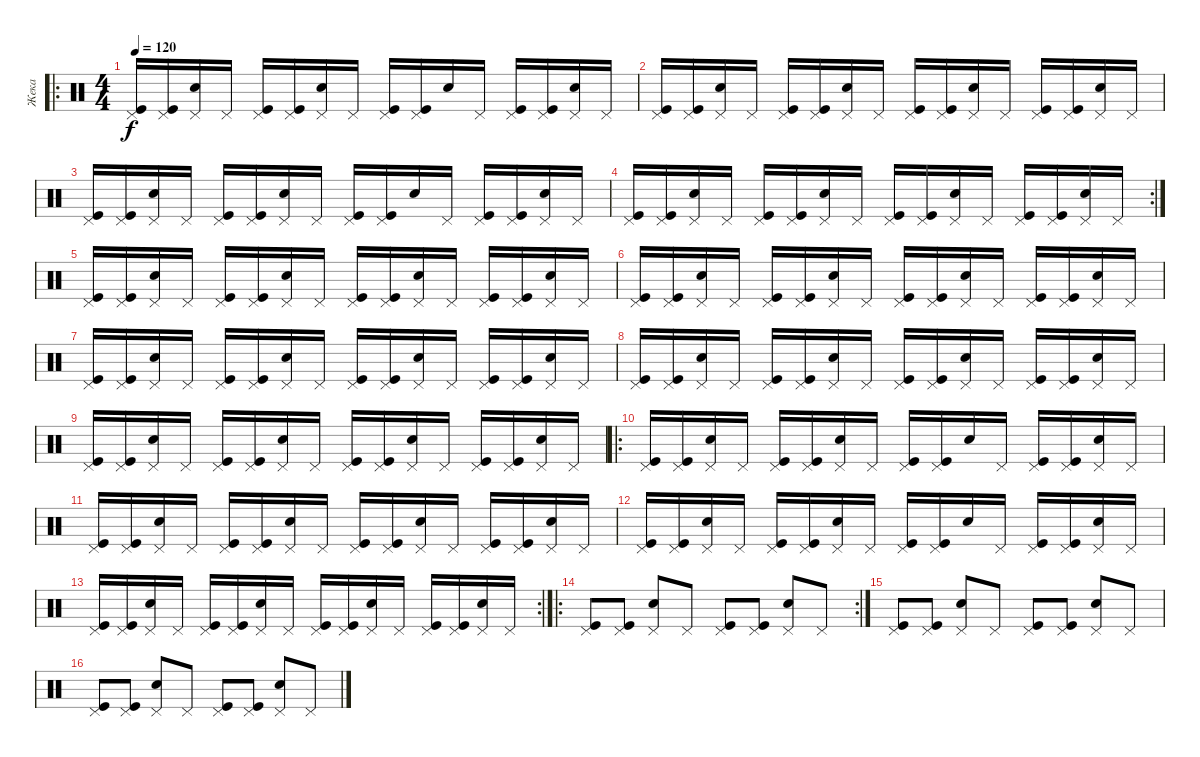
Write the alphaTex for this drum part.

\track ("Жека" "Жека") {solo instrument percussion}
\staff {score}
\articulation defaults
\ro
\ts (4 4)
\tempo 120
\clef neutral
\ks c
("Kick (hit)" "Pedal Hi-Hat (hit)").16{dy f} ("Kick (hit)" "Pedal Hi-Hat (hit)").16 ("Pedal Hi-Hat (hit)" "Snare (hit) 2").16 "Pedal Hi-Hat (hit)".16 ("Kick (hit)" "Pedal Hi-Hat (hit)").16 ("Kick (hit)" "Pedal Hi-Hat (hit)").16 ("Pedal Hi-Hat (hit)" "Snare (hit) 2").16 "Pedal Hi-Hat (hit)".16 ("Kick (hit)" "Pedal Hi-Hat (hit)").16 ("Kick (hit)" "Pedal Hi-Hat (hit)").16 "Snare (hit) 2".16 "Pedal Hi-Hat (hit)".16 ("Kick (hit)" "Pedal Hi-Hat (hit)").16 ("Kick (hit)" "Pedal Hi-Hat (hit)").16 ("Pedal Hi-Hat (hit)" "Snare (hit) 2").16 "Pedal Hi-Hat (hit)".16 |
("Kick (hit)" "Pedal Hi-Hat (hit)").16 ("Kick (hit)" "Pedal Hi-Hat (hit)").16 ("Pedal Hi-Hat (hit)" "Snare (hit) 2").16 "Pedal Hi-Hat (hit)".16 ("Kick (hit)" "Pedal Hi-Hat (hit)").16 ("Kick (hit)" "Pedal Hi-Hat (hit)").16 ("Pedal Hi-Hat (hit)" "Snare (hit) 2").16 "Pedal Hi-Hat (hit)".16 ("Kick (hit)" "Pedal Hi-Hat (hit)").16 ("Kick (hit)" "Pedal Hi-Hat (hit)").16 ("Pedal Hi-Hat (hit)" "Snare (hit) 2").16 "Pedal Hi-Hat (hit)".16 ("Kick (hit)" "Pedal Hi-Hat (hit)").16 ("Kick (hit)" "Pedal Hi-Hat (hit)").16 ("Pedal Hi-Hat (hit)" "Snare (hit) 2").16 "Pedal Hi-Hat (hit)".16 |
("Kick (hit)" "Pedal Hi-Hat (hit)").16 ("Kick (hit)" "Pedal Hi-Hat (hit)").16 ("Pedal Hi-Hat (hit)" "Snare (hit) 2").16 "Pedal Hi-Hat (hit)".16 ("Kick (hit)" "Pedal Hi-Hat (hit)").16 ("Kick (hit)" "Pedal Hi-Hat (hit)").16 ("Pedal Hi-Hat (hit)" "Snare (hit) 2").16 "Pedal Hi-Hat (hit)".16 ("Kick (hit)" "Pedal Hi-Hat (hit)").16 ("Kick (hit)" "Pedal Hi-Hat (hit)").16 "Snare (hit) 2".16 "Pedal Hi-Hat (hit)".16 ("Kick (hit)" "Pedal Hi-Hat (hit)").16 ("Kick (hit)" "Pedal Hi-Hat (hit)").16 ("Pedal Hi-Hat (hit)" "Snare (hit) 2").16 "Pedal Hi-Hat (hit)".16 |
\rc 2
("Kick (hit)" "Pedal Hi-Hat (hit)").16 ("Kick (hit)" "Pedal Hi-Hat (hit)").16 ("Pedal Hi-Hat (hit)" "Snare (hit) 2").16 "Pedal Hi-Hat (hit)".16 ("Kick (hit)" "Pedal Hi-Hat (hit)").16 ("Kick (hit)" "Pedal Hi-Hat (hit)").16 ("Pedal Hi-Hat (hit)" "Snare (hit) 2").16 "Pedal Hi-Hat (hit)".16 ("Kick (hit)" "Pedal Hi-Hat (hit)").16 ("Kick (hit)" "Pedal Hi-Hat (hit)").16 ("Pedal Hi-Hat (hit)" "Snare (hit) 2").16 "Pedal Hi-Hat (hit)".16 ("Kick (hit)" "Pedal Hi-Hat (hit)").16 ("Kick (hit)" "Pedal Hi-Hat (hit)").16 ("Pedal Hi-Hat (hit)" "Snare (hit) 2").16 "Pedal Hi-Hat (hit)".16 |
("Kick (hit)" "Pedal Hi-Hat (hit)").16 ("Kick (hit)" "Pedal Hi-Hat (hit)").16 ("Pedal Hi-Hat (hit)" "Snare (hit) 2").16 "Pedal Hi-Hat (hit)".16 ("Kick (hit)" "Pedal Hi-Hat (hit)").16 ("Kick (hit)" "Pedal Hi-Hat (hit)").16 ("Pedal Hi-Hat (hit)" "Snare (hit) 2").16 "Pedal Hi-Hat (hit)".16 ("Kick (hit)" "Pedal Hi-Hat (hit)").16 ("Kick (hit)" "Pedal Hi-Hat (hit)").16 ("Pedal Hi-Hat (hit)" "Snare (hit) 2").16 "Pedal Hi-Hat (hit)".16 ("Kick (hit)" "Pedal Hi-Hat (hit)").16 ("Kick (hit)" "Pedal Hi-Hat (hit)").16 ("Pedal Hi-Hat (hit)" "Snare (hit) 2").16 "Pedal Hi-Hat (hit)".16 |
("Kick (hit)" "Pedal Hi-Hat (hit)").16 ("Kick (hit)" "Pedal Hi-Hat (hit)").16 ("Pedal Hi-Hat (hit)" "Snare (hit) 2").16 "Pedal Hi-Hat (hit)".16 ("Kick (hit)" "Pedal Hi-Hat (hit)").16 ("Kick (hit)" "Pedal Hi-Hat (hit)").16 ("Pedal Hi-Hat (hit)" "Snare (hit) 2").16 "Pedal Hi-Hat (hit)".16 ("Kick (hit)" "Pedal Hi-Hat (hit)").16 ("Kick (hit)" "Pedal Hi-Hat (hit)").16 ("Pedal Hi-Hat (hit)" "Snare (hit) 2").16 "Pedal Hi-Hat (hit)".16 ("Kick (hit)" "Pedal Hi-Hat (hit)").16 ("Kick (hit)" "Pedal Hi-Hat (hit)").16 ("Pedal Hi-Hat (hit)" "Snare (hit) 2").16 "Pedal Hi-Hat (hit)".16 |
("Kick (hit)" "Pedal Hi-Hat (hit)").16 ("Kick (hit)" "Pedal Hi-Hat (hit)").16 ("Pedal Hi-Hat (hit)" "Snare (hit) 2").16 "Pedal Hi-Hat (hit)".16 ("Kick (hit)" "Pedal Hi-Hat (hit)").16 ("Kick (hit)" "Pedal Hi-Hat (hit)").16 ("Pedal Hi-Hat (hit)" "Snare (hit) 2").16 "Pedal Hi-Hat (hit)".16 ("Kick (hit)" "Pedal Hi-Hat (hit)").16 ("Kick (hit)" "Pedal Hi-Hat (hit)").16 ("Pedal Hi-Hat (hit)" "Snare (hit) 2").16 "Pedal Hi-Hat (hit)".16 ("Kick (hit)" "Pedal Hi-Hat (hit)").16 ("Kick (hit)" "Pedal Hi-Hat (hit)").16 ("Pedal Hi-Hat (hit)" "Snare (hit) 2").16 "Pedal Hi-Hat (hit)".16 |
("Kick (hit)" "Pedal Hi-Hat (hit)").16 ("Kick (hit)" "Pedal Hi-Hat (hit)").16 ("Pedal Hi-Hat (hit)" "Snare (hit) 2").16 "Pedal Hi-Hat (hit)".16 ("Kick (hit)" "Pedal Hi-Hat (hit)").16 ("Kick (hit)" "Pedal Hi-Hat (hit)").16 ("Pedal Hi-Hat (hit)" "Snare (hit) 2").16 "Pedal Hi-Hat (hit)".16 ("Kick (hit)" "Pedal Hi-Hat (hit)").16 ("Kick (hit)" "Pedal Hi-Hat (hit)").16 ("Pedal Hi-Hat (hit)" "Snare (hit) 2").16 "Pedal Hi-Hat (hit)".16 ("Kick (hit)" "Pedal Hi-Hat (hit)").16 ("Kick (hit)" "Pedal Hi-Hat (hit)").16 ("Pedal Hi-Hat (hit)" "Snare (hit) 2").16 "Pedal Hi-Hat (hit)".16 |
("Kick (hit)" "Pedal Hi-Hat (hit)").16 ("Kick (hit)" "Pedal Hi-Hat (hit)").16 ("Pedal Hi-Hat (hit)" "Snare (hit) 2").16 "Pedal Hi-Hat (hit)".16 ("Kick (hit)" "Pedal Hi-Hat (hit)").16 ("Kick (hit)" "Pedal Hi-Hat (hit)").16 ("Pedal Hi-Hat (hit)" "Snare (hit) 2").16 "Pedal Hi-Hat (hit)".16 ("Kick (hit)" "Pedal Hi-Hat (hit)").16 ("Kick (hit)" "Pedal Hi-Hat (hit)").16 ("Pedal Hi-Hat (hit)" "Snare (hit) 2").16 "Pedal Hi-Hat (hit)".16 ("Kick (hit)" "Pedal Hi-Hat (hit)").16 ("Kick (hit)" "Pedal Hi-Hat (hit)").16 ("Pedal Hi-Hat (hit)" "Snare (hit) 2").16 "Pedal Hi-Hat (hit)".16 |
\ro
("Kick (hit)" "Pedal Hi-Hat (hit)").16 ("Kick (hit)" "Pedal Hi-Hat (hit)").16 ("Pedal Hi-Hat (hit)" "Snare (hit) 2").16 "Pedal Hi-Hat (hit)".16 ("Kick (hit)" "Pedal Hi-Hat (hit)").16 ("Kick (hit)" "Pedal Hi-Hat (hit)").16 ("Pedal Hi-Hat (hit)" "Snare (hit) 2").16 "Pedal Hi-Hat (hit)".16 ("Kick (hit)" "Pedal Hi-Hat (hit)").16 ("Kick (hit)" "Pedal Hi-Hat (hit)").16 "Snare (hit) 2".16 "Pedal Hi-Hat (hit)".16 ("Kick (hit)" "Pedal Hi-Hat (hit)").16 ("Kick (hit)" "Pedal Hi-Hat (hit)").16 ("Pedal Hi-Hat (hit)" "Snare (hit) 2").16 "Pedal Hi-Hat (hit)".16 |
("Kick (hit)" "Pedal Hi-Hat (hit)").16 ("Kick (hit)" "Pedal Hi-Hat (hit)").16 ("Pedal Hi-Hat (hit)" "Snare (hit) 2").16 "Pedal Hi-Hat (hit)".16 ("Kick (hit)" "Pedal Hi-Hat (hit)").16 ("Kick (hit)" "Pedal Hi-Hat (hit)").16 ("Pedal Hi-Hat (hit)" "Snare (hit) 2").16 "Pedal Hi-Hat (hit)".16 ("Kick (hit)" "Pedal Hi-Hat (hit)").16 ("Kick (hit)" "Pedal Hi-Hat (hit)").16 ("Pedal Hi-Hat (hit)" "Snare (hit) 2").16 "Pedal Hi-Hat (hit)".16 ("Kick (hit)" "Pedal Hi-Hat (hit)").16 ("Kick (hit)" "Pedal Hi-Hat (hit)").16 ("Pedal Hi-Hat (hit)" "Snare (hit) 2").16 "Pedal Hi-Hat (hit)".16 |
("Kick (hit)" "Pedal Hi-Hat (hit)").16 ("Kick (hit)" "Pedal Hi-Hat (hit)").16 ("Pedal Hi-Hat (hit)" "Snare (hit) 2").16 "Pedal Hi-Hat (hit)".16 ("Kick (hit)" "Pedal Hi-Hat (hit)").16 ("Kick (hit)" "Pedal Hi-Hat (hit)").16 ("Pedal Hi-Hat (hit)" "Snare (hit) 2").16 "Pedal Hi-Hat (hit)".16 ("Kick (hit)" "Pedal Hi-Hat (hit)").16 ("Kick (hit)" "Pedal Hi-Hat (hit)").16 "Snare (hit) 2".16 "Pedal Hi-Hat (hit)".16 ("Kick (hit)" "Pedal Hi-Hat (hit)").16 ("Kick (hit)" "Pedal Hi-Hat (hit)").16 ("Pedal Hi-Hat (hit)" "Snare (hit) 2").16 "Pedal Hi-Hat (hit)".16 |
\rc 2
("Kick (hit)" "Pedal Hi-Hat (hit)").16 ("Kick (hit)" "Pedal Hi-Hat (hit)").16 ("Pedal Hi-Hat (hit)" "Snare (hit) 2").16 "Pedal Hi-Hat (hit)".16 ("Kick (hit)" "Pedal Hi-Hat (hit)").16 ("Kick (hit)" "Pedal Hi-Hat (hit)").16 ("Pedal Hi-Hat (hit)" "Snare (hit) 2").16 "Pedal Hi-Hat (hit)".16 ("Kick (hit)" "Pedal Hi-Hat (hit)").16 ("Kick (hit)" "Pedal Hi-Hat (hit)").16 ("Pedal Hi-Hat (hit)" "Snare (hit) 2").16 "Pedal Hi-Hat (hit)".16 ("Kick (hit)" "Pedal Hi-Hat (hit)").16 ("Kick (hit)" "Pedal Hi-Hat (hit)").16 ("Pedal Hi-Hat (hit)" "Snare (hit) 2").16 "Pedal Hi-Hat (hit)".16 |
\ro
\rc 2
("Kick (hit)" "Pedal Hi-Hat (hit)").8 ("Kick (hit)" "Pedal Hi-Hat (hit)").8 ("Pedal Hi-Hat (hit)" "Snare (hit) 2").8 "Pedal Hi-Hat (hit)".8 ("Kick (hit)" "Pedal Hi-Hat (hit)").8 ("Kick (hit)" "Pedal Hi-Hat (hit)").8 ("Pedal Hi-Hat (hit)" "Snare (hit) 2").8 "Pedal Hi-Hat (hit)".8 |
("Kick (hit)" "Pedal Hi-Hat (hit)").8 ("Kick (hit)" "Pedal Hi-Hat (hit)").8 ("Pedal Hi-Hat (hit)" "Snare (hit) 2").8 "Pedal Hi-Hat (hit)".8 ("Kick (hit)" "Pedal Hi-Hat (hit)").8 ("Kick (hit)" "Pedal Hi-Hat (hit)").8 ("Pedal Hi-Hat (hit)" "Snare (hit) 2").8 "Pedal Hi-Hat (hit)".8 |
("Kick (hit)" "Pedal Hi-Hat (hit)").8 ("Kick (hit)" "Pedal Hi-Hat (hit)").8 ("Pedal Hi-Hat (hit)" "Snare (hit) 2").8 "Pedal Hi-Hat (hit)".8 ("Kick (hit)" "Pedal Hi-Hat (hit)").8 ("Kick (hit)" "Pedal Hi-Hat (hit)").8 ("Pedal Hi-Hat (hit)" "Snare (hit) 2").8 "Pedal Hi-Hat (hit)".8
